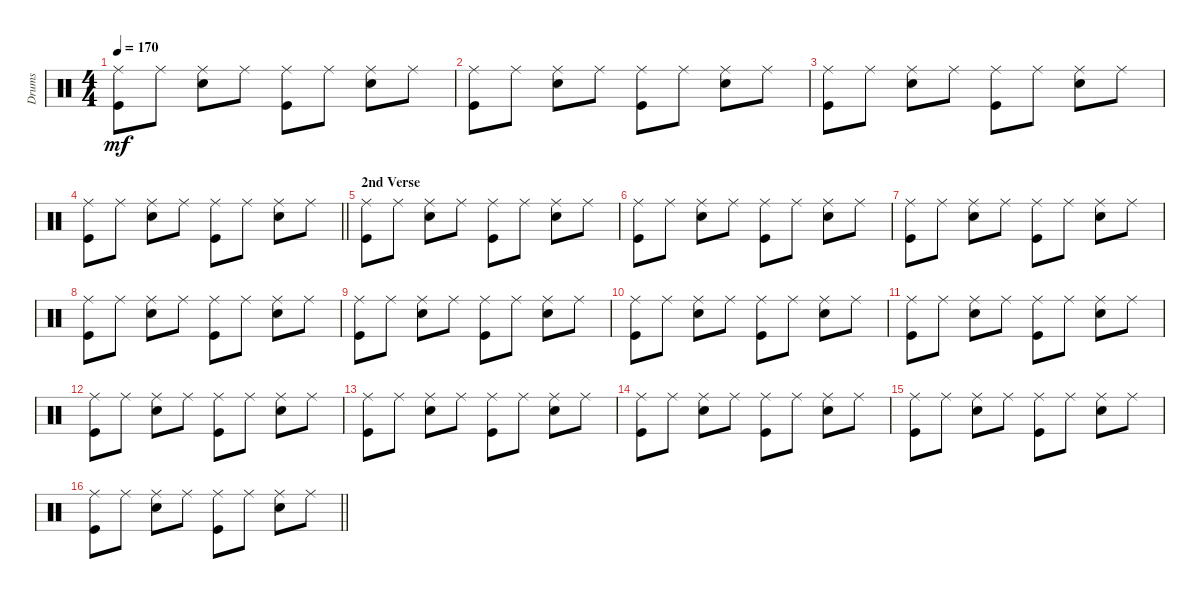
\track ("Drums" "Drums") {instrument percussion}
\staff {score}
\articulation defaults
\ts (4 4)
\tempo 170
\clef neutral
\ks c
("Ride (middle)" "Kick (hit)").8{dy mf} "Ride (middle)".8 ("Ride (middle)" "Snare (hit) 2").8 "Ride (middle)".8 ("Ride (middle)" "Kick (hit)").8 "Ride (middle)".8 ("Ride (middle)" "Snare (hit) 2").8 "Ride (middle)".8 |
("Ride (middle)" "Kick (hit)").8 "Ride (middle)".8 ("Ride (middle)" "Snare (hit) 2").8 "Ride (middle)".8 ("Ride (middle)" "Kick (hit)").8 "Ride (middle)".8 ("Ride (middle)" "Snare (hit) 2").8 "Ride (middle)".8 |
("Ride (middle)" "Kick (hit)").8 "Ride (middle)".8 ("Ride (middle)" "Snare (hit) 2").8 "Ride (middle)".8 ("Ride (middle)" "Kick (hit)").8 "Ride (middle)".8 ("Ride (middle)" "Snare (hit) 2").8 "Ride (middle)".8 |
\barLineRight lightlight
("Ride (middle)" "Kick (hit)").8 "Ride (middle)".8 ("Ride (middle)" "Snare (hit) 2").8 "Ride (middle)".8 ("Ride (middle)" "Kick (hit)").8 "Ride (middle)".8 ("Ride (middle)" "Snare (hit) 2").8 "Ride (middle)".8 |
\section ("" "2nd Verse")
("Ride (middle)" "Kick (hit)").8 "Ride (middle)".8 ("Ride (middle)" "Snare (hit) 2").8 "Ride (middle)".8 ("Ride (middle)" "Kick (hit)").8 "Ride (middle)".8 ("Ride (middle)" "Snare (hit) 2").8 "Ride (middle)".8 |
("Ride (middle)" "Kick (hit)").8 "Ride (middle)".8 ("Ride (middle)" "Snare (hit) 2").8 "Ride (middle)".8 ("Ride (middle)" "Kick (hit)").8 "Ride (middle)".8 ("Ride (middle)" "Snare (hit) 2").8 "Ride (middle)".8 |
("Ride (middle)" "Kick (hit)").8 "Ride (middle)".8 ("Ride (middle)" "Snare (hit) 2").8 "Ride (middle)".8 ("Ride (middle)" "Kick (hit)").8 "Ride (middle)".8 ("Ride (middle)" "Snare (hit) 2").8 "Ride (middle)".8 |
("Ride (middle)" "Kick (hit)").8 "Ride (middle)".8 ("Ride (middle)" "Snare (hit) 2").8 "Ride (middle)".8 ("Ride (middle)" "Kick (hit)").8 "Ride (middle)".8 ("Ride (middle)" "Snare (hit) 2").8 "Ride (middle)".8 |
("Ride (middle)" "Kick (hit)").8 "Ride (middle)".8 ("Ride (middle)" "Snare (hit) 2").8 "Ride (middle)".8 ("Ride (middle)" "Kick (hit)").8 "Ride (middle)".8 ("Ride (middle)" "Snare (hit) 2").8 "Ride (middle)".8 |
("Ride (middle)" "Kick (hit)").8 "Ride (middle)".8 ("Ride (middle)" "Snare (hit) 2").8 "Ride (middle)".8 ("Ride (middle)" "Kick (hit)").8 "Ride (middle)".8 ("Ride (middle)" "Snare (hit) 2").8 "Ride (middle)".8 |
("Ride (middle)" "Kick (hit)").8 "Ride (middle)".8 ("Ride (middle)" "Snare (hit) 2").8 "Ride (middle)".8 ("Ride (middle)" "Kick (hit)").8 "Ride (middle)".8 ("Ride (middle)" "Snare (hit) 2").8 "Ride (middle)".8 |
("Ride (middle)" "Kick (hit)").8 "Ride (middle)".8 ("Ride (middle)" "Snare (hit) 2").8 "Ride (middle)".8 ("Ride (middle)" "Kick (hit)").8 "Ride (middle)".8 ("Ride (middle)" "Snare (hit) 2").8 "Ride (middle)".8 |
("Ride (middle)" "Kick (hit)").8 "Ride (middle)".8 ("Ride (middle)" "Snare (hit) 2").8 "Ride (middle)".8 ("Ride (middle)" "Kick (hit)").8 "Ride (middle)".8 ("Ride (middle)" "Snare (hit) 2").8 "Ride (middle)".8 |
("Ride (middle)" "Kick (hit)").8 "Ride (middle)".8 ("Ride (middle)" "Snare (hit) 2").8 "Ride (middle)".8 ("Ride (middle)" "Kick (hit)").8 "Ride (middle)".8 ("Ride (middle)" "Snare (hit) 2").8 "Ride (middle)".8 |
("Ride (middle)" "Kick (hit)").8 "Ride (middle)".8 ("Ride (middle)" "Snare (hit) 2").8 "Ride (middle)".8 ("Ride (middle)" "Kick (hit)").8 "Ride (middle)".8 ("Ride (middle)" "Snare (hit) 2").8 "Ride (middle)".8 |
\barLineRight lightlight
("Ride (middle)" "Kick (hit)").8 "Ride (middle)".8 ("Ride (middle)" "Snare (hit) 2").8 "Ride (middle)".8 ("Ride (middle)" "Kick (hit)").8 "Ride (middle)".8 ("Ride (middle)" "Snare (hit) 2").8 "Ride (middle)".8
